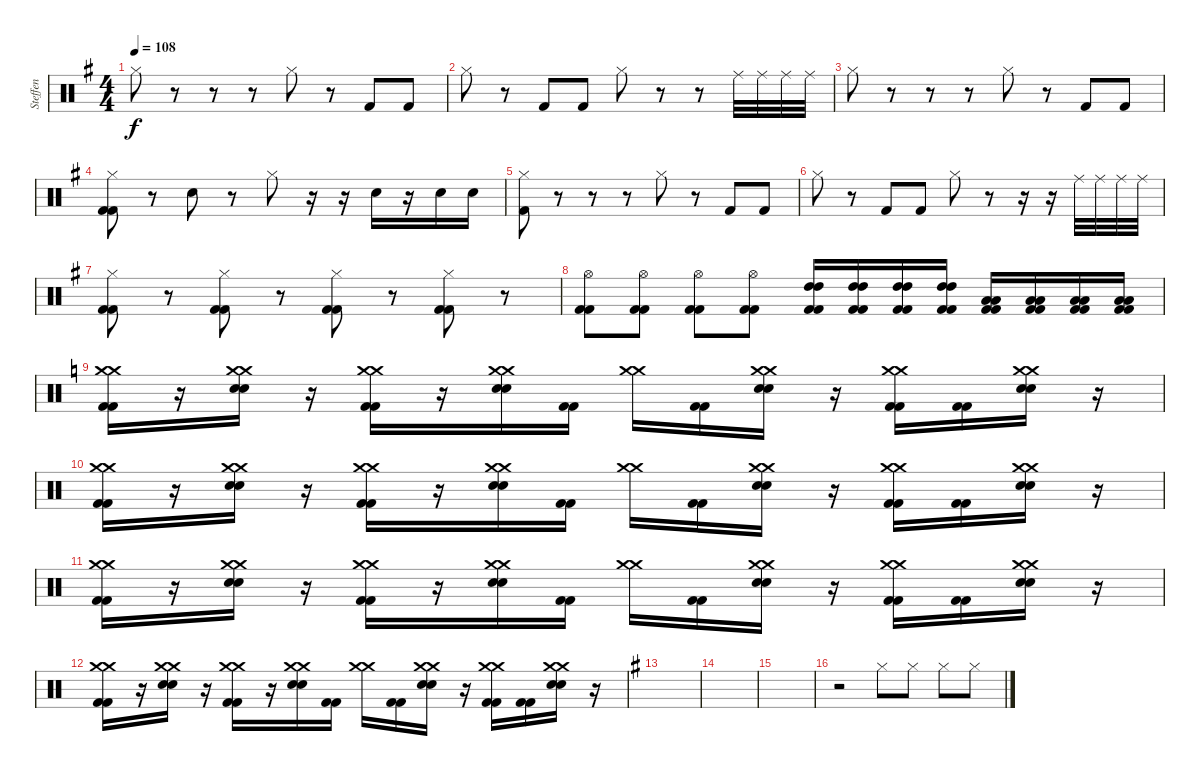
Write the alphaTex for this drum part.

\track ("Steffen" "Steffen") {instrument percussion}
\staff {score}
\articulation defaults
\ts (4 4)
\tempo 108
\clef neutral
\ks g "Hi-Hat (closed)".8{dy f}
r.8 r.8 r.8 "Hi-Hat (closed)".8 r.8 "Kick (hit) 2".8 "Kick (hit) 2".8 |
"Hi-Hat (closed)".8 r.8 "Kick (hit) 2".8 "Kick (hit) 2".8 "Hi-Hat (closed)".8 r.8 r.8 "Ride (middle)".32 "Ride (middle)".32 "Ride (middle)".32 "Ride (middle)".32 |
"Hi-Hat (closed)".8 r.8 r.8 r.8 "Hi-Hat (closed)".8 r.8 "Kick (hit) 2".8 "Kick (hit) 2".8 |
("Hi-Hat (closed)" "Kick (hit) 2" "Kick (hit) 2").8 r.8 "Electric Snare (hit)".8 r.8 "Hi-Hat (closed)".8 r.16 r.16 "Electric Snare (hit)".16 r.16 "Electric Snare (hit)".16 "Electric Snare (hit)".16 |
("Hi-Hat (closed)" "Kick (hit) 2").8 r.8 r.8 r.8 "Hi-Hat (closed)".8 r.8 "Kick (hit) 2".8 "Kick (hit) 2".8 |
"Hi-Hat (closed)".8 r.8 "Kick (hit) 2".8 "Kick (hit) 2".8 "Hi-Hat (closed)".8 r.8 r.16 r.16 "Ride (middle)".32 "Ride (middle)".32 "Ride (middle)".32 "Ride (middle)".32 |
("Hi-Hat (closed)" "Kick (hit) 2" "Kick (hit) 2").8 r.8 ("Hi-Hat (closed)" "Kick (hit) 2" "Kick (hit) 2").8 r.8 ("Hi-Hat (closed)" "Kick (hit) 2" "Kick (hit) 2").8 r.8 ("Hi-Hat (closed)" "Kick (hit) 2" "Kick (hit) 2").8 r.8 |
("Hi-Hat (open)" "Kick (hit) 2" "Kick (hit) 2").8 ("Hi-Hat (open)" "Kick (hit) 2" "Kick (hit) 2").8 ("Hi-Hat (open)" "Kick (hit) 2" "Kick (hit) 2").8 ("Hi-Hat (open)" "Kick (hit) 2" "Kick (hit) 2").8 ("High Tom (hit)" "High Tom (hit)" "Kick (hit) 2" "Kick (hit) 2").16 ("High Tom (hit)" "High Tom (hit)" "Kick (hit) 2" "Kick (hit) 2").16 ("High Tom (hit)" "High Tom (hit)" "Kick (hit) 2" "Kick (hit) 2").16 ("High Tom (hit)" "High Tom (hit)" "Kick (hit) 2" "Kick (hit) 2").16 ("Low Floor Tom (hit)" "Low Floor Tom (hit)" "Kick (hit) 2" "Kick (hit) 2").16 ("Low Floor Tom (hit)" "Low Floor Tom (hit)" "Kick (hit) 2" "Kick (hit) 2").16 ("Low Floor Tom (hit)" "Low Floor Tom (hit)" "Kick (hit) 2" "Kick (hit) 2").16 ("Low Floor Tom (hit)" "Low Floor Tom (hit)" "Kick (hit) 2" "Kick (hit) 2").16 |
\ks c
("Kick (hit) 2" "Kick (hit) 2" "Crash medium (hit)" "Crash medium (hit)").16 r.16 ("Snare (hit) 2" "Snare (hit) 2" "Crash medium (hit)" "Crash medium (hit)").16 r.16 ("Kick (hit) 2" "Kick (hit) 2" "Crash medium (hit)" "Crash medium (hit)").16 r.16 ("Snare (hit) 2" "Snare (hit) 2" "Crash medium (hit)" "Crash medium (hit)").16 ("Kick (hit) 2" "Kick (hit) 2").16 ("Crash medium (hit)" "Crash medium (hit)").16 ("Kick (hit) 2" "Kick (hit) 2").16 ("Snare (hit) 2" "Snare (hit) 2" "Crash medium (hit)" "Crash medium (hit)").16 r.16 ("Kick (hit) 2" "Kick (hit) 2" "Crash medium (hit)" "Crash medium (hit)").16 ("Kick (hit) 2" "Kick (hit) 2").16 ("Snare (hit) 2" "Snare (hit) 2" "Crash medium (hit)" "Crash medium (hit)").16 r.16 |
("Kick (hit) 2" "Kick (hit) 2" "Crash medium (hit)" "Crash medium (hit)").16 r.16 ("Snare (hit) 2" "Snare (hit) 2" "Crash medium (hit)" "Crash medium (hit)").16 r.16 ("Kick (hit) 2" "Kick (hit) 2" "Crash medium (hit)" "Crash medium (hit)").16 r.16 ("Snare (hit) 2" "Snare (hit) 2" "Crash medium (hit)" "Crash medium (hit)").16 ("Kick (hit) 2" "Kick (hit) 2").16 ("Crash medium (hit)" "Crash medium (hit)").16 ("Kick (hit) 2" "Kick (hit) 2").16 ("Snare (hit) 2" "Snare (hit) 2" "Crash medium (hit)" "Crash medium (hit)").16 r.16 ("Kick (hit) 2" "Kick (hit) 2" "Crash medium (hit)" "Crash medium (hit)").16 ("Kick (hit) 2" "Kick (hit) 2").16 ("Snare (hit) 2" "Snare (hit) 2" "Crash medium (hit)" "Crash medium (hit)").16 r.16 |
("Kick (hit) 2" "Kick (hit) 2" "Crash medium (hit)" "Crash medium (hit)").16 r.16 ("Snare (hit) 2" "Snare (hit) 2" "Crash medium (hit)" "Crash medium (hit)").16 r.16 ("Kick (hit) 2" "Kick (hit) 2" "Crash medium (hit)" "Crash medium (hit)").16 r.16 ("Snare (hit) 2" "Snare (hit) 2" "Crash medium (hit)" "Crash medium (hit)").16 ("Kick (hit) 2" "Kick (hit) 2").16 ("Crash medium (hit)" "Crash medium (hit)").16 ("Kick (hit) 2" "Kick (hit) 2").16 ("Snare (hit) 2" "Snare (hit) 2" "Crash medium (hit)" "Crash medium (hit)").16 r.16 ("Kick (hit) 2" "Kick (hit) 2" "Crash medium (hit)" "Crash medium (hit)").16 ("Kick (hit) 2" "Kick (hit) 2").16 ("Snare (hit) 2" "Snare (hit) 2" "Crash medium (hit)" "Crash medium (hit)").16 r.16 |
("Kick (hit) 2" "Kick (hit) 2" "Crash medium (hit)" "Crash medium (hit)").16 r.16 ("Snare (hit) 2" "Snare (hit) 2" "Crash medium (hit)" "Crash medium (hit)").16 r.16 ("Kick (hit) 2" "Kick (hit) 2" "Crash medium (hit)" "Crash medium (hit)").16 r.16 ("Snare (hit) 2" "Snare (hit) 2" "Crash medium (hit)" "Crash medium (hit)").16 ("Kick (hit) 2" "Kick (hit) 2").16 ("Crash medium (hit)" "Crash medium (hit)").16 ("Kick (hit) 2" "Kick (hit) 2").16 ("Snare (hit) 2" "Snare (hit) 2" "Crash medium (hit)" "Crash medium (hit)").16 r.16 ("Kick (hit) 2" "Kick (hit) 2" "Crash medium (hit)" "Crash medium (hit)").16 ("Kick (hit) 2" "Kick (hit) 2").16 ("Snare (hit) 2" "Snare (hit) 2" "Crash medium (hit)" "Crash medium (hit)").16 r.16 |
\ks g
|
|
|
r.2 "Hi-Hat (closed)".8 "Hi-Hat (closed)".8 "Hi-Hat (closed)".8 "Hi-Hat (closed)".8
